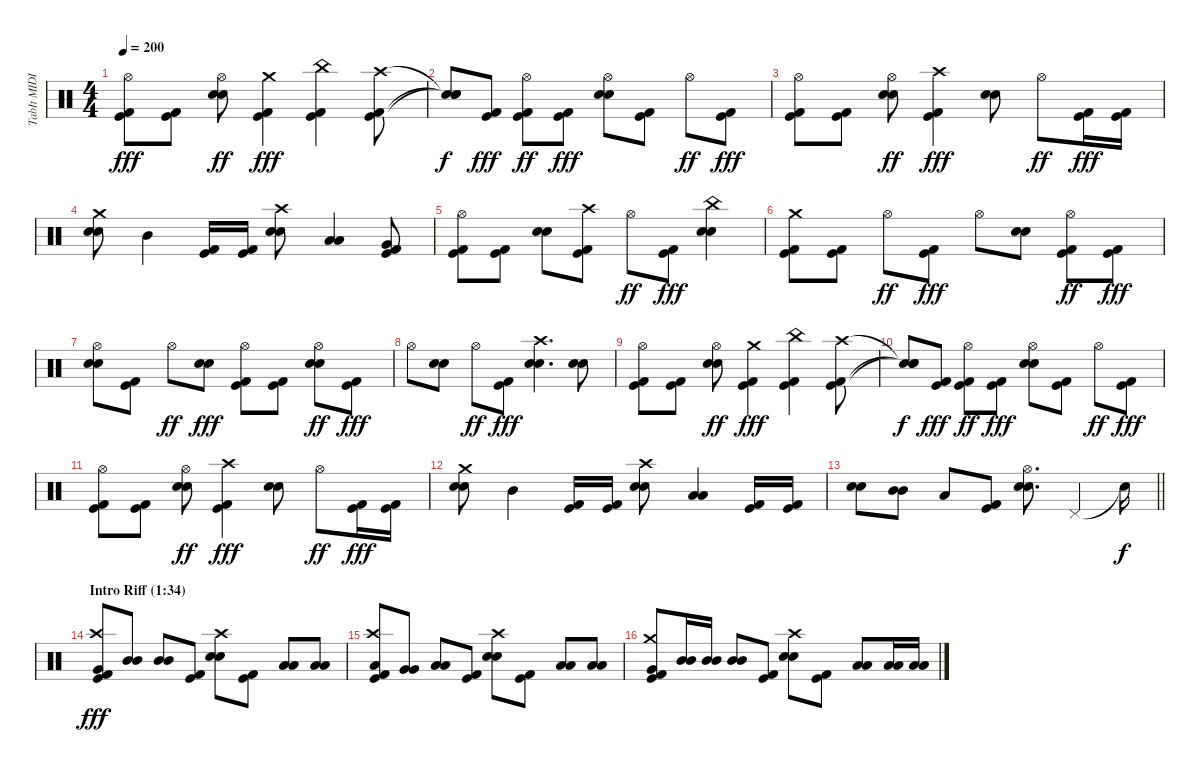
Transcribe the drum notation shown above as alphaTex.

\track ("TabIt MIDI - Track 4" "TabIt MIDI") {instrument percussion}
\staff {score}
\articulation defaults
\ts (4 4)
\tempo 200
\clef neutral
\ks c
("Kick (hit)" "Kick (hit) 2" "Hi-Hat (open)").8{dy fff} ("Kick (hit)" "Kick (hit) 2").8 ("Electric Snare (hit)" "Electric Snare (hit)" "Hi-Hat (open)").8{dy ff} ("Kick (hit)" "Kick (hit) 2" "Crash medium (hit)").4{dy fff} ("Kick (hit)" "Kick (hit) 2" "China (hit)").4 ("Kick (hit)" "Kick (hit) 2" "Crash high (hit)").8 |
("Snare (hit)"{t} "Snare (hit)"{t} "Snare (hit)"{t}).8{dy f} ("Kick (hit)" "Kick (hit) 2").8{dy fff} ("Kick (hit)" "Kick (hit) 2" "Hi-Hat (open)").8{dy ff} ("Kick (hit)" "Kick (hit) 2").8{dy fff} ("Electric Snare (hit)" "Electric Snare (hit)" "Hi-Hat (open)").8 ("Kick (hit)" "Kick (hit) 2").8 "Hi-Hat (open)".8{dy ff} ("Kick (hit)" "Kick (hit) 2").8{dy fff} |
("Kick (hit)" "Kick (hit) 2" "Hi-Hat (open)").8 ("Kick (hit)" "Kick (hit) 2").8 ("Electric Snare (hit)" "Electric Snare (hit)" "Hi-Hat (open)").8{dy ff} ("Kick (hit)" "Kick (hit) 2" "Crash high (hit)").4{dy fff} ("Electric Snare (hit)" "Electric Snare (hit)").8 "Hi-Hat (open)".8{dy ff} ("Kick (hit)" "Kick (hit) 2").16{dy fff} ("Kick (hit)" "Kick (hit) 2").16 |
("Electric Snare (hit)" "Electric Snare (hit)" "Crash medium (hit)").8 "Mid Tom (hit)".4 ("Kick (hit)" "Kick (hit) 2").16 ("Kick (hit)" "Kick (hit) 2").16 ("Electric Snare (hit)" "Electric Snare (hit)" "Crash high (hit)").8 ("Low Tom (hit)" "Low Tom (hit)").4 ("Kick (hit)" "Kick (hit) 2" "Very Low Tom (hit)").8 |
("Kick (hit)" "Kick (hit) 2" "Hi-Hat (open)").8 ("Kick (hit)" "Kick (hit) 2").8 ("Electric Snare (hit)" "Electric Snare (hit)").8 ("Kick (hit)" "Kick (hit) 2" "Crash high (hit)").8 "Hi-Hat (open)".8{dy ff} ("Kick (hit)" "Kick (hit) 2").8{dy fff} ("Electric Snare (hit)" "Electric Snare (hit)" "China (hit)").4 |
("Kick (hit)" "Kick (hit) 2" "Crash medium (hit)").8 ("Kick (hit)" "Kick (hit) 2").8 "Hi-Hat (open)".8{dy ff} ("Kick (hit)" "Kick (hit) 2").8{dy fff} "Hi-Hat (open)".8 ("Electric Snare (hit)" "Electric Snare (hit)").8 ("Kick (hit)" "Kick (hit) 2" "Hi-Hat (open)").8{dy ff} ("Kick (hit)" "Kick (hit) 2").8{dy fff} |
("Electric Snare (hit)" "Electric Snare (hit)" "Hi-Hat (open)").8 ("Kick (hit)" "Kick (hit) 2").8 "Hi-Hat (open)".8{dy ff} ("Electric Snare (hit)" "Electric Snare (hit)").8{dy fff} ("Kick (hit)" "Kick (hit) 2" "Hi-Hat (open)").8 ("Kick (hit)" "Kick (hit) 2").8 ("Electric Snare (hit)" "Electric Snare (hit)" "Hi-Hat (open)").8{dy ff} ("Kick (hit)" "Kick (hit) 2").8{dy fff} |
"Hi-Hat (open)".8 ("Electric Snare (hit)" "Electric Snare (hit)").8 "Hi-Hat (open)".8{dy ff} ("Kick (hit)" "Kick (hit) 2").8{dy fff} ("Electric Snare (hit)" "Electric Snare (hit)" "Crash high (hit)").4{d} ("Electric Snare (hit)" "Electric Snare (hit)").8 |
("Kick (hit)" "Kick (hit) 2" "Hi-Hat (open)").8 ("Kick (hit)" "Kick (hit) 2").8 ("Electric Snare (hit)" "Electric Snare (hit)" "Hi-Hat (open)").8{dy ff} ("Kick (hit)" "Kick (hit) 2" "Crash medium (hit)").4{dy fff} ("Kick (hit)" "Kick (hit) 2" "China (hit)").4 ("Kick (hit)" "Kick (hit) 2" "Crash high (hit)").8 |
("Snare (hit)"{t} "Snare (hit)"{t} "Snare (hit)"{t}).8{dy f} ("Kick (hit)" "Kick (hit) 2").8{dy fff} ("Kick (hit)" "Kick (hit) 2" "Hi-Hat (open)").8{dy ff} ("Kick (hit)" "Kick (hit) 2").8{dy fff} ("Electric Snare (hit)" "Electric Snare (hit)" "Hi-Hat (open)").8 ("Kick (hit)" "Kick (hit) 2").8 "Hi-Hat (open)".8{dy ff} ("Kick (hit)" "Kick (hit) 2").8{dy fff} |
("Kick (hit)" "Kick (hit) 2" "Hi-Hat (open)").8 ("Kick (hit)" "Kick (hit) 2").8 ("Electric Snare (hit)" "Electric Snare (hit)" "Hi-Hat (open)").8{dy ff} ("Kick (hit)" "Kick (hit) 2" "Crash high (hit)").4{dy fff} ("Electric Snare (hit)" "Electric Snare (hit)").8 "Hi-Hat (open)".8{dy ff} ("Kick (hit)" "Kick (hit) 2").16{dy fff} ("Kick (hit)" "Kick (hit) 2").16 |
("Electric Snare (hit)" "Electric Snare (hit)" "Crash medium (hit)").8 "Mid Tom (hit)".4 ("Kick (hit)" "Kick (hit) 2").16 ("Kick (hit)" "Kick (hit) 2").16 ("Electric Snare (hit)" "Electric Snare (hit)" "Crash high (hit)").8 ("Low Tom (hit)" "Low Tom (hit)").4 ("Kick (hit)" "Kick (hit) 2").16 ("Kick (hit)" "Kick (hit) 2").16 |
\barLineRight lightlight
("Electric Snare (hit)" "Electric Snare (hit)").8 ("Mid Tom (hit)" "Mid Tom (hit)").8 "Low Floor Tom (hit)".8 ("Kick (hit)" "Kick (hit) 2").8 ("Electric Snare (hit)" "Electric Snare (hit)" "Hi-Hat (open)").8{d} "Pedal Hi-Hat (hit)".4 "Snare (hit)"{t}.16{dy f} |
\section ("" "Intro Riff (1:34)")
("Kick (hit)" "Kick (hit) 2" "Very Low Tom (hit)" "Crash high (hit)").8{dy fff} ("Mid Tom (hit)" "Mid Tom (hit)").8 ("Mid Tom (hit)" "Mid Tom (hit)").8 ("Kick (hit)" "Kick (hit) 2").8 ("Electric Snare (hit)" "Electric Snare (hit)" "Crash high (hit)").8 ("Kick (hit)" "Kick (hit) 2").8 ("Low Tom (hit)" "Low Tom (hit)").8 ("Low Tom (hit)" "Low Tom (hit)").8 |
("Kick (hit)" "Kick (hit) 2" "Low Floor Tom (hit)" "Crash high (hit)").8 ("Very Low Tom (hit)" "Very Low Tom (hit)").8 ("Low Floor Tom (hit)" "Low Floor Tom (hit)").8 ("Kick (hit)" "Kick (hit) 2").8 ("Electric Snare (hit)" "Electric Snare (hit)" "Crash high (hit)").8 ("Kick (hit)" "Kick (hit) 2").8 ("Low Tom (hit)" "Low Tom (hit)").8 ("Low Tom (hit)" "Low Tom (hit)").8 |
("Kick (hit)" "Kick (hit) 2" "Very Low Tom (hit)" "Crash medium (hit)").8 ("Mid Tom (hit)" "Mid Tom (hit)").16 ("Mid Tom (hit)" "Mid Tom (hit)").16 ("Mid Tom (hit)" "Mid Tom (hit)").8 ("Kick (hit)" "Kick (hit) 2").8 ("Electric Snare (hit)" "Electric Snare (hit)" "Crash high (hit)").8 ("Kick (hit)" "Kick (hit) 2").8 ("Low Tom (hit)" "Low Tom (hit)").8 ("Low Tom (hit)" "Low Tom (hit)").16 ("Low Tom (hit)" "Low Tom (hit)").16
